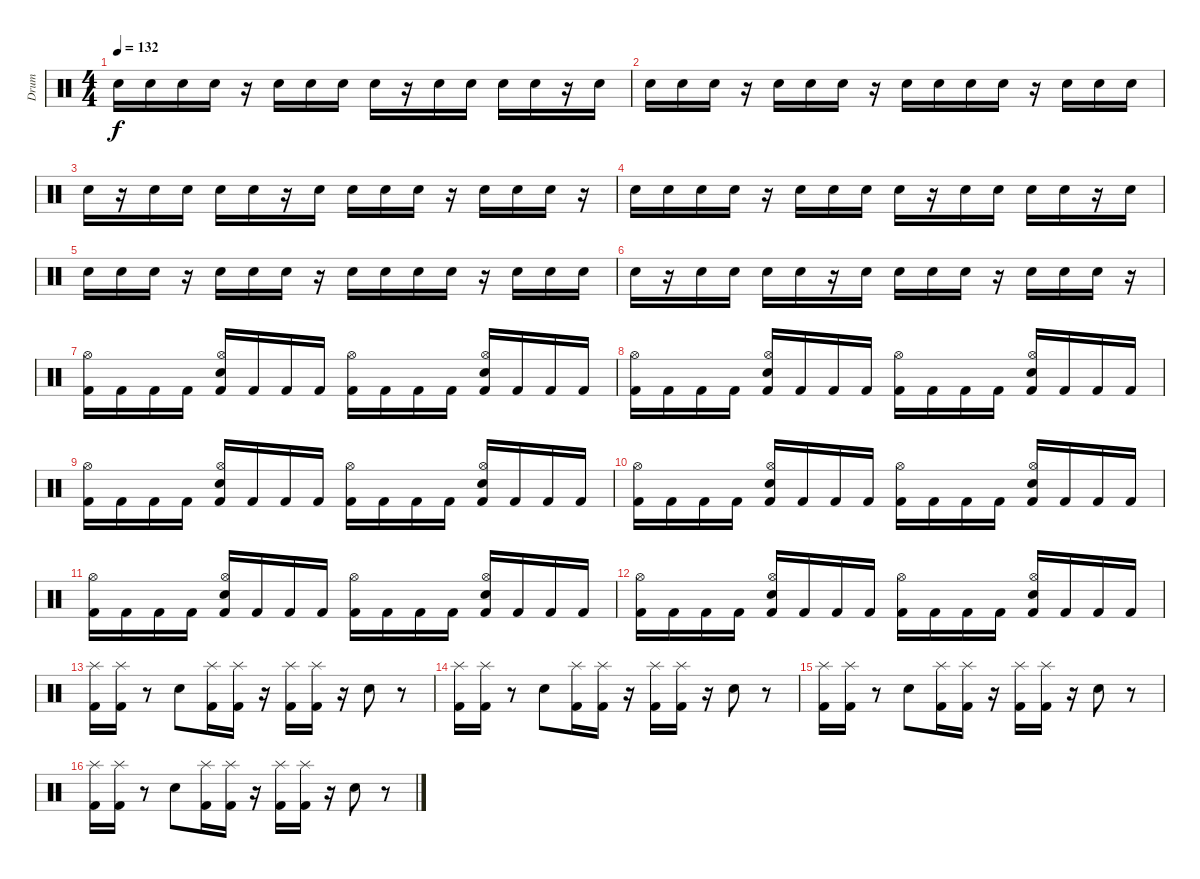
\track (" Drum" " Drum") {instrument percussion}
\staff {score}
\articulation defaults
\ts (4 4)
\tempo 132
\clef neutral
\ks c "Electric Snare (hit)".16{dy f} "Electric Snare (hit)".16 "Electric Snare (hit)".16 "Electric Snare (hit)".16
r.16 "Electric Snare (hit)".16 "Electric Snare (hit)".16 "Electric Snare (hit)".16 "Electric Snare (hit)".16 r.16 "Electric Snare (hit)".16 "Electric Snare (hit)".16 "Electric Snare (hit)".16 "Electric Snare (hit)".16 r.16 "Electric Snare (hit)".16 |
"Electric Snare (hit)".16 "Electric Snare (hit)".16 "Electric Snare (hit)".16 r.16 "Electric Snare (hit)".16 "Electric Snare (hit)".16 "Electric Snare (hit)".16 r.16 "Electric Snare (hit)".16 "Electric Snare (hit)".16 "Electric Snare (hit)".16 "Electric Snare (hit)".16 r.16 "Electric Snare (hit)".16 "Electric Snare (hit)".16 "Electric Snare (hit)".16 |
"Electric Snare (hit)".16 r.16 "Electric Snare (hit)".16 "Electric Snare (hit)".16 "Electric Snare (hit)".16 "Electric Snare (hit)".16 r.16 "Electric Snare (hit)".16 "Electric Snare (hit)".16 "Electric Snare (hit)".16 "Electric Snare (hit)".16 r.16 "Electric Snare (hit)".16 "Electric Snare (hit)".16 "Electric Snare (hit)".16 r.16 |
"Electric Snare (hit)".16 "Electric Snare (hit)".16 "Electric Snare (hit)".16 "Electric Snare (hit)".16 r.16 "Electric Snare (hit)".16 "Electric Snare (hit)".16 "Electric Snare (hit)".16 "Electric Snare (hit)".16 r.16 "Electric Snare (hit)".16 "Electric Snare (hit)".16 "Electric Snare (hit)".16 "Electric Snare (hit)".16 r.16 "Electric Snare (hit)".16 |
"Electric Snare (hit)".16 "Electric Snare (hit)".16 "Electric Snare (hit)".16 r.16 "Electric Snare (hit)".16 "Electric Snare (hit)".16 "Electric Snare (hit)".16 r.16 "Electric Snare (hit)".16 "Electric Snare (hit)".16 "Electric Snare (hit)".16 "Electric Snare (hit)".16 r.16 "Electric Snare (hit)".16 "Electric Snare (hit)".16 "Electric Snare (hit)".16 |
"Electric Snare (hit)".16 r.16 "Electric Snare (hit)".16 "Electric Snare (hit)".16 "Electric Snare (hit)".16 "Electric Snare (hit)".16 r.16 "Electric Snare (hit)".16 "Electric Snare (hit)".16 "Electric Snare (hit)".16 "Electric Snare (hit)".16 r.16 "Electric Snare (hit)".16 "Electric Snare (hit)".16 "Electric Snare (hit)".16 r.16 |
("Hi-Hat (open)" "Kick (hit) 2").16 "Kick (hit) 2".16 "Kick (hit) 2".16 "Kick (hit) 2".16 ("Electric Snare (hit)" "Hi-Hat (open)" "Kick (hit) 2").16 "Kick (hit) 2".16 "Kick (hit) 2".16 "Kick (hit) 2".16 ("Hi-Hat (open)" "Kick (hit) 2").16 "Kick (hit) 2".16 "Kick (hit) 2".16 "Kick (hit) 2".16 ("Electric Snare (hit)" "Hi-Hat (open)" "Kick (hit) 2").16 "Kick (hit) 2".16 "Kick (hit) 2".16 "Kick (hit) 2".16 |
("Hi-Hat (open)" "Kick (hit) 2").16 "Kick (hit) 2".16 "Kick (hit) 2".16 "Kick (hit) 2".16 ("Electric Snare (hit)" "Hi-Hat (open)" "Kick (hit) 2").16 "Kick (hit) 2".16 "Kick (hit) 2".16 "Kick (hit) 2".16 ("Hi-Hat (open)" "Kick (hit) 2").16 "Kick (hit) 2".16 "Kick (hit) 2".16 "Kick (hit) 2".16 ("Electric Snare (hit)" "Hi-Hat (open)" "Kick (hit) 2").16 "Kick (hit) 2".16 "Kick (hit) 2".16 "Kick (hit) 2".16 |
("Hi-Hat (open)" "Kick (hit) 2").16 "Kick (hit) 2".16 "Kick (hit) 2".16 "Kick (hit) 2".16 ("Electric Snare (hit)" "Hi-Hat (open)" "Kick (hit) 2").16 "Kick (hit) 2".16 "Kick (hit) 2".16 "Kick (hit) 2".16 ("Hi-Hat (open)" "Kick (hit) 2").16 "Kick (hit) 2".16 "Kick (hit) 2".16 "Kick (hit) 2".16 ("Electric Snare (hit)" "Hi-Hat (open)" "Kick (hit) 2").16 "Kick (hit) 2".16 "Kick (hit) 2".16 "Kick (hit) 2".16 |
("Hi-Hat (open)" "Kick (hit) 2").16 "Kick (hit) 2".16 "Kick (hit) 2".16 "Kick (hit) 2".16 ("Electric Snare (hit)" "Hi-Hat (open)" "Kick (hit) 2").16 "Kick (hit) 2".16 "Kick (hit) 2".16 "Kick (hit) 2".16 ("Hi-Hat (open)" "Kick (hit) 2").16 "Kick (hit) 2".16 "Kick (hit) 2".16 "Kick (hit) 2".16 ("Electric Snare (hit)" "Hi-Hat (open)" "Kick (hit) 2").16 "Kick (hit) 2".16 "Kick (hit) 2".16 "Kick (hit) 2".16 |
("Hi-Hat (open)" "Kick (hit) 2").16 "Kick (hit) 2".16 "Kick (hit) 2".16 "Kick (hit) 2".16 ("Electric Snare (hit)" "Hi-Hat (open)" "Kick (hit) 2").16 "Kick (hit) 2".16 "Kick (hit) 2".16 "Kick (hit) 2".16 ("Hi-Hat (open)" "Kick (hit) 2").16 "Kick (hit) 2".16 "Kick (hit) 2".16 "Kick (hit) 2".16 ("Electric Snare (hit)" "Hi-Hat (open)" "Kick (hit) 2").16 "Kick (hit) 2".16 "Kick (hit) 2".16 "Kick (hit) 2".16 |
("Hi-Hat (open)" "Kick (hit) 2").16 "Kick (hit) 2".16 "Kick (hit) 2".16 "Kick (hit) 2".16 ("Electric Snare (hit)" "Hi-Hat (open)" "Kick (hit) 2").16 "Kick (hit) 2".16 "Kick (hit) 2".16 "Kick (hit) 2".16 ("Hi-Hat (open)" "Kick (hit) 2").16 "Kick (hit) 2".16 "Kick (hit) 2".16 "Kick (hit) 2".16 ("Electric Snare (hit)" "Hi-Hat (open)" "Kick (hit) 2").16 "Kick (hit) 2".16 "Kick (hit) 2".16 "Kick (hit) 2".16 |
("Splash (hit)" "Kick (hit) 2").16 ("Splash (hit)" "Kick (hit) 2").16 r.8 "Electric Snare (hit)".8 ("Splash (hit)" "Kick (hit) 2").16 ("Splash (hit)" "Kick (hit) 2").16 r.16 ("Splash (hit)" "Kick (hit) 2").16 ("Splash (hit)" "Kick (hit) 2").16 r.16 "Electric Snare (hit)".8 r.8 |
("Splash (hit)" "Kick (hit) 2").16 ("Splash (hit)" "Kick (hit) 2").16 r.8 "Electric Snare (hit)".8 ("Splash (hit)" "Kick (hit) 2").16 ("Splash (hit)" "Kick (hit) 2").16 r.16 ("Splash (hit)" "Kick (hit) 2").16 ("Splash (hit)" "Kick (hit) 2").16 r.16 "Electric Snare (hit)".8 r.8 |
("Splash (hit)" "Kick (hit) 2").16 ("Splash (hit)" "Kick (hit) 2").16 r.8 "Electric Snare (hit)".8 ("Splash (hit)" "Kick (hit) 2").16 ("Splash (hit)" "Kick (hit) 2").16 r.16 ("Splash (hit)" "Kick (hit) 2").16 ("Splash (hit)" "Kick (hit) 2").16 r.16 "Electric Snare (hit)".8 r.8 |
("Splash (hit)" "Kick (hit) 2").16 ("Splash (hit)" "Kick (hit) 2").16 r.8 "Electric Snare (hit)".8 ("Splash (hit)" "Kick (hit) 2").16 ("Splash (hit)" "Kick (hit) 2").16 r.16 ("Splash (hit)" "Kick (hit) 2").16 ("Splash (hit)" "Kick (hit) 2").16 r.16 "Electric Snare (hit)".8 r.8
